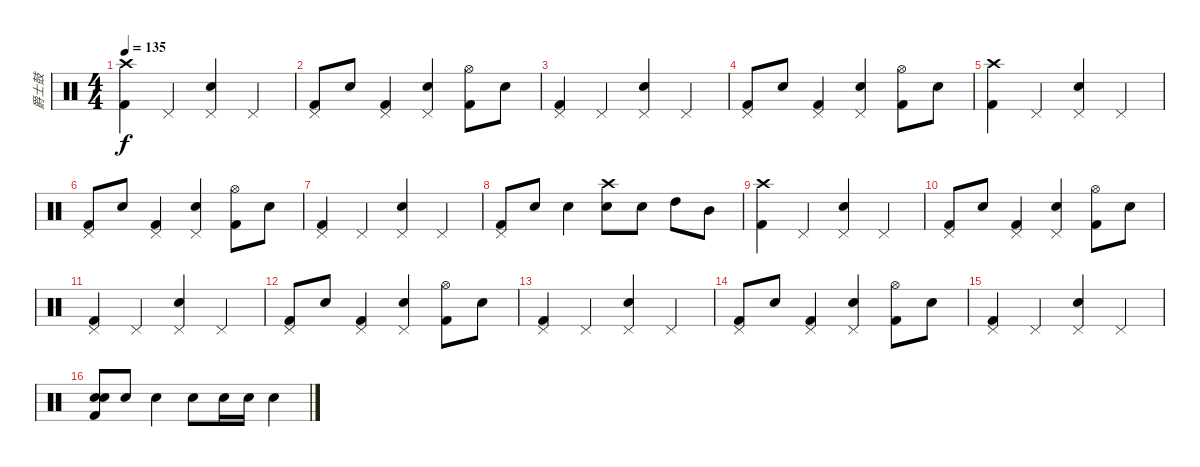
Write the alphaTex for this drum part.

\track ("爵士鼓" "爵士鼓") {instrument percussion}
\staff {score}
\articulation defaults
\ts (4 4)
\tempo 135
\clef neutral
\ks c
("Crash high (hit)" "Kick (hit) 2").4{dy f} "Pedal Hi-Hat (hit)".4 ("Pedal Hi-Hat (hit)" "Snare (hit) 2").4 "Pedal Hi-Hat (hit)".4 |
("Pedal Hi-Hat (hit)" "Kick (hit) 2").8 "Snare (hit) 2".8 ("Pedal Hi-Hat (hit)" "Kick (hit) 2").4 ("Pedal Hi-Hat (hit)" "Snare (hit) 2").4 ("Hi-Hat (open)" "Kick (hit) 2").8 "Snare (hit) 2".8 |
("Pedal Hi-Hat (hit)" "Kick (hit) 2").4 "Pedal Hi-Hat (hit)".4 ("Pedal Hi-Hat (hit)" "Snare (hit) 2").4 "Pedal Hi-Hat (hit)".4 |
("Pedal Hi-Hat (hit)" "Kick (hit) 2").8 "Snare (hit) 2".8 ("Pedal Hi-Hat (hit)" "Kick (hit) 2").4 ("Pedal Hi-Hat (hit)" "Snare (hit) 2").4 ("Hi-Hat (open)" "Kick (hit) 2").8 "Snare (hit) 2".8 |
("Crash high (hit)" "Kick (hit) 2").4 "Pedal Hi-Hat (hit)".4 ("Pedal Hi-Hat (hit)" "Snare (hit) 2").4 "Pedal Hi-Hat (hit)".4 |
("Pedal Hi-Hat (hit)" "Kick (hit) 2").8 "Snare (hit) 2".8 ("Pedal Hi-Hat (hit)" "Kick (hit) 2").4 ("Pedal Hi-Hat (hit)" "Snare (hit) 2").4 ("Hi-Hat (open)" "Kick (hit) 2").8 "Snare (hit) 2".8 |
("Pedal Hi-Hat (hit)" "Kick (hit) 2").4 "Pedal Hi-Hat (hit)".4 ("Pedal Hi-Hat (hit)" "Snare (hit) 2").4 "Pedal Hi-Hat (hit)".4 |
("Pedal Hi-Hat (hit)" "Kick (hit) 2").8 "Electric Snare (hit)".8 "Electric Snare (hit)".4 ("Crash high (hit)" "Snare (hit) 2").8 "Snare (hit) 2".8 "High Tom (hit)".8 "Mid Tom (hit)".8 |
("Crash high (hit)" "Kick (hit) 2").4 "Pedal Hi-Hat (hit)".4 ("Pedal Hi-Hat (hit)" "Snare (hit) 2").4 "Pedal Hi-Hat (hit)".4 |
("Pedal Hi-Hat (hit)" "Kick (hit) 2").8 "Snare (hit) 2".8 ("Pedal Hi-Hat (hit)" "Kick (hit) 2").4 ("Pedal Hi-Hat (hit)" "Snare (hit) 2").4 ("Hi-Hat (open)" "Kick (hit) 2").8 "Snare (hit) 2".8 |
("Pedal Hi-Hat (hit)" "Kick (hit) 2").4 "Pedal Hi-Hat (hit)".4 ("Pedal Hi-Hat (hit)" "Snare (hit) 2").4 "Pedal Hi-Hat (hit)".4 |
("Pedal Hi-Hat (hit)" "Kick (hit) 2").8 "Snare (hit) 2".8 ("Pedal Hi-Hat (hit)" "Kick (hit) 2").4 ("Pedal Hi-Hat (hit)" "Snare (hit) 2").4 ("Hi-Hat (open)" "Kick (hit) 2").8 "Snare (hit) 2".8 |
("Pedal Hi-Hat (hit)" "Kick (hit) 2").4 "Pedal Hi-Hat (hit)".4 ("Pedal Hi-Hat (hit)" "Snare (hit) 2").4 "Pedal Hi-Hat (hit)".4 |
("Pedal Hi-Hat (hit)" "Kick (hit) 2").8 "Snare (hit) 2".8 ("Pedal Hi-Hat (hit)" "Kick (hit) 2").4 ("Pedal Hi-Hat (hit)" "Snare (hit) 2").4 ("Hi-Hat (open)" "Kick (hit) 2").8 "Snare (hit) 2".8 |
("Pedal Hi-Hat (hit)" "Kick (hit) 2").4 "Pedal Hi-Hat (hit)".4 ("Pedal Hi-Hat (hit)" "Snare (hit) 2").4 "Pedal Hi-Hat (hit)".4 |
("Snare (hit) 2" "Electric Snare (hit)" "Kick (hit) 2").8 "Snare (hit) 2".8 "Electric Snare (hit)".4 "Snare (hit) 2".8 "Snare (hit) 2".16 "Electric Snare (hit)".16 "Electric Snare (hit)".4
